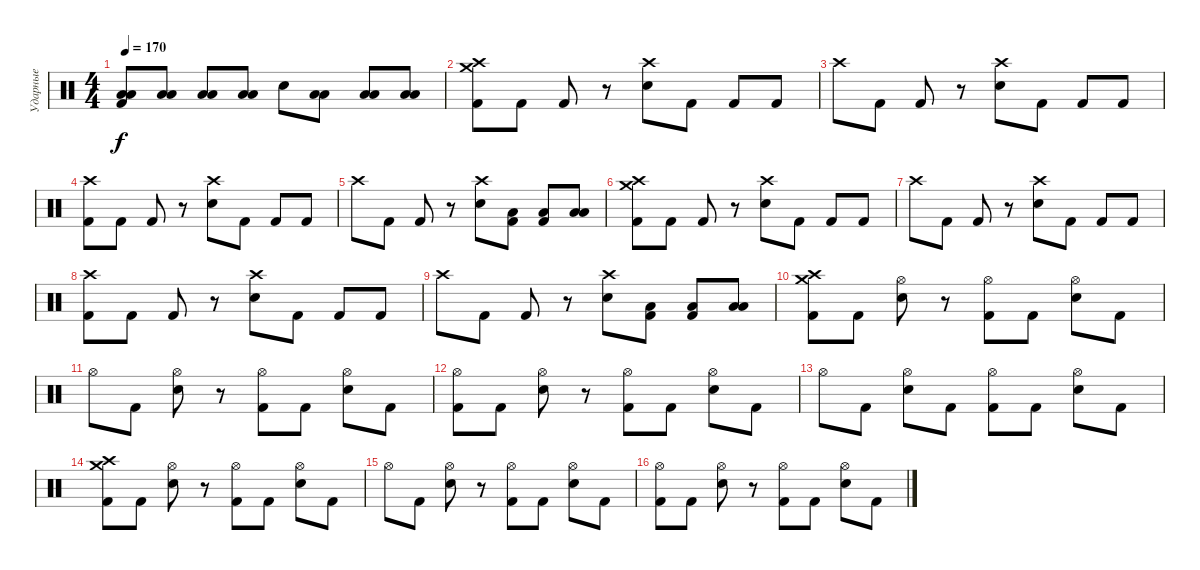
\track ("Ударные" "Ударные") {instrument percussion}
\staff {score}
\articulation defaults
\ts (4 4)
\tempo 170
\clef neutral
\ks c
("Low Tom (hit)" "Low Floor Tom (hit)" "Kick (hit) 2").8{dy f} ("Low Tom (hit)" "Low Floor Tom (hit)").8 ("Low Tom (hit)" "Low Floor Tom (hit)").8 ("Low Tom (hit)" "Low Floor Tom (hit)").8 "Electric Snare (hit)".8 ("Low Tom (hit)" "Low Floor Tom (hit)").8 ("Low Tom (hit)" "Low Floor Tom (hit)").8 ("Low Tom (hit)" "Low Floor Tom (hit)").8 |
("Crash medium (hit)" "Crash high (hit)" "Kick (hit) 2").8 "Kick (hit) 2".8 "Kick (hit) 2".8 r.8 ("Crash high (hit)" "Electric Snare (hit)").8 "Kick (hit) 2".8 "Kick (hit) 2".8 "Kick (hit) 2".8 |
"Crash high (hit)".8 "Kick (hit) 2".8 "Kick (hit) 2".8 r.8 ("Crash high (hit)" "Electric Snare (hit)").8 "Kick (hit) 2".8 "Kick (hit) 2".8 "Kick (hit) 2".8 |
("Crash high (hit)" "Kick (hit) 2").8 "Kick (hit) 2".8 "Kick (hit) 2".8 r.8 ("Crash high (hit)" "Electric Snare (hit)").8 "Kick (hit) 2".8 "Kick (hit) 2".8 "Kick (hit) 2".8 |
"Crash high (hit)".8 "Kick (hit) 2".8 "Kick (hit) 2".8 r.8 ("Crash high (hit)" "Electric Snare (hit)").8 ("Low Tom (hit)" "Kick (hit) 2").8 ("Low Floor Tom (hit)" "Kick (hit) 2").8 ("Low Tom (hit)" "Low Floor Tom (hit)").8 |
("Crash medium (hit)" "Crash high (hit)" "Kick (hit) 2").8 "Kick (hit) 2".8 "Kick (hit) 2".8 r.8 ("Crash high (hit)" "Electric Snare (hit)").8 "Kick (hit) 2".8 "Kick (hit) 2".8 "Kick (hit) 2".8 |
"Crash high (hit)".8 "Kick (hit) 2".8 "Kick (hit) 2".8 r.8 ("Crash high (hit)" "Electric Snare (hit)").8 "Kick (hit) 2".8 "Kick (hit) 2".8 "Kick (hit) 2".8 |
("Crash high (hit)" "Kick (hit) 2").8 "Kick (hit) 2".8 "Kick (hit) 2".8 r.8 ("Crash high (hit)" "Electric Snare (hit)").8 "Kick (hit) 2".8 "Kick (hit) 2".8 "Kick (hit) 2".8 |
"Crash high (hit)".8 "Kick (hit) 2".8 "Kick (hit) 2".8 r.8 ("Crash high (hit)" "Electric Snare (hit)").8 ("Low Tom (hit)" "Kick (hit) 2").8 ("Low Floor Tom (hit)" "Kick (hit) 2").8 ("Low Tom (hit)" "Low Floor Tom (hit)").8 |
("Crash medium (hit)" "Crash high (hit)" "Kick (hit) 2").8 "Kick (hit) 2".8 ("Hi-Hat (open)" "Electric Snare (hit)").8 r.8 ("Hi-Hat (open)" "Kick (hit) 2").8 "Kick (hit) 2".8 ("Hi-Hat (open)" "Electric Snare (hit)").8 "Kick (hit) 2".8 |
"Hi-Hat (open)".8 "Kick (hit) 2".8 ("Hi-Hat (open)" "Electric Snare (hit)").8 r.8 ("Hi-Hat (open)" "Kick (hit) 2").8 "Kick (hit) 2".8 ("Hi-Hat (open)" "Electric Snare (hit)").8 "Kick (hit) 2".8 |
("Hi-Hat (open)" "Kick (hit) 2").8 "Kick (hit) 2".8 ("Hi-Hat (open)" "Electric Snare (hit)").8 r.8 ("Hi-Hat (open)" "Kick (hit) 2").8 "Kick (hit) 2".8 ("Hi-Hat (open)" "Electric Snare (hit)").8 "Kick (hit) 2".8 |
"Hi-Hat (open)".8 "Kick (hit) 2".8 ("Hi-Hat (open)" "Electric Snare (hit)").8 "Kick (hit) 2".8 ("Hi-Hat (open)" "Kick (hit) 2").8 "Kick (hit) 2".8 ("Hi-Hat (open)" "Electric Snare (hit)").8 "Kick (hit) 2".8 |
("Crash medium (hit)" "Crash high (hit)" "Kick (hit) 2").8 "Kick (hit) 2".8 ("Hi-Hat (open)" "Electric Snare (hit)").8 r.8 ("Hi-Hat (open)" "Kick (hit) 2").8 "Kick (hit) 2".8 ("Hi-Hat (open)" "Electric Snare (hit)").8 "Kick (hit) 2".8 |
"Hi-Hat (open)".8 "Kick (hit) 2".8 ("Hi-Hat (open)" "Electric Snare (hit)").8 r.8 ("Hi-Hat (open)" "Kick (hit) 2").8 "Kick (hit) 2".8 ("Hi-Hat (open)" "Electric Snare (hit)").8 "Kick (hit) 2".8 |
("Hi-Hat (open)" "Kick (hit) 2").8 "Kick (hit) 2".8 ("Hi-Hat (open)" "Electric Snare (hit)").8 r.8 ("Hi-Hat (open)" "Kick (hit) 2").8 "Kick (hit) 2".8 ("Hi-Hat (open)" "Electric Snare (hit)").8 "Kick (hit) 2".8
